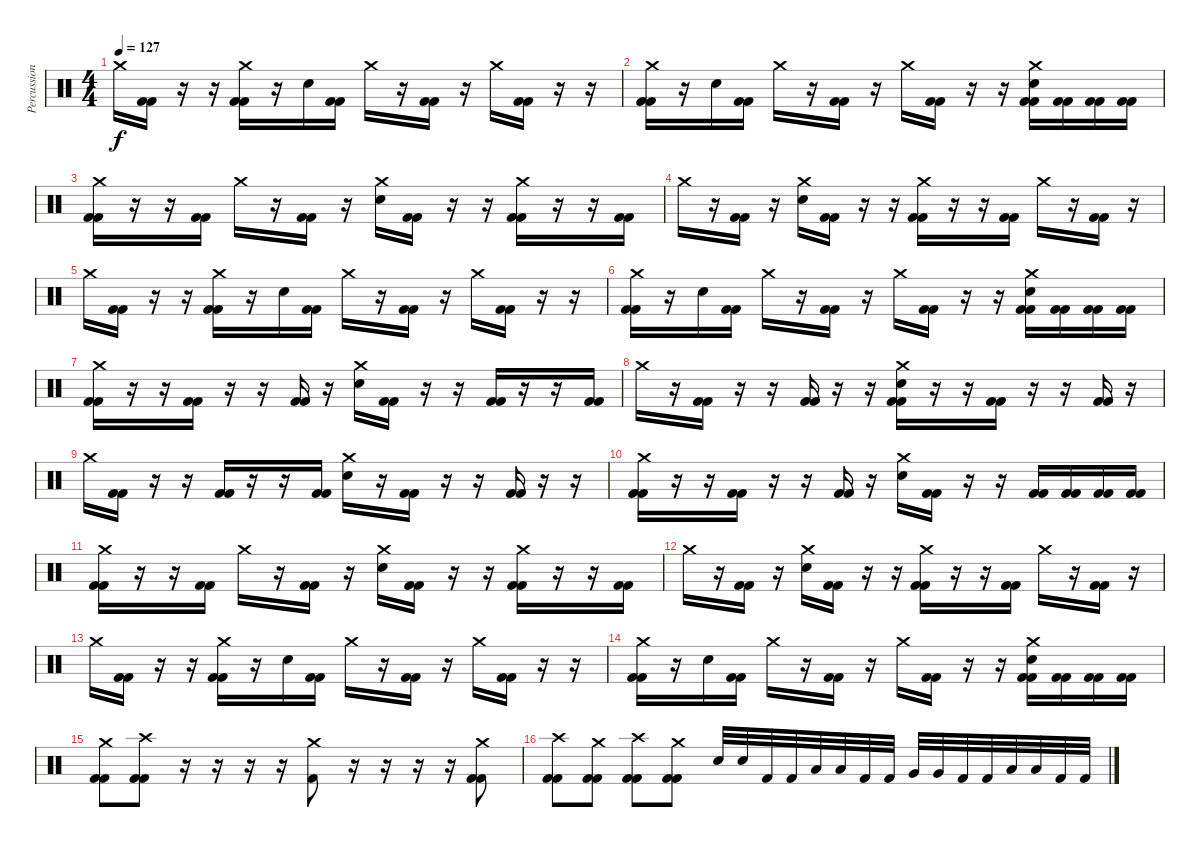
\track ("Percussion" "Percussion") {instrument percussion}
\staff {score}
\articulation defaults
\ts (4 4)
\tempo 127
\clef neutral
\ks c "Crash medium (hit)".16{dy f}
("Kick (hit) 2" "Kick (hit) 2").16 r.16 r.16 ("Crash medium (hit)" "Kick (hit) 2" "Kick (hit) 2").16 r.16 "Electric Snare (hit)".16 ("Kick (hit) 2" "Kick (hit) 2").16 "Crash medium (hit)".16 r.16 ("Kick (hit) 2" "Kick (hit) 2").16 r.16 "Crash medium (hit)".16 ("Kick (hit) 2" "Kick (hit) 2").16 r.16 r.16 |
("Crash medium (hit)" "Kick (hit) 2" "Kick (hit) 2").16 r.16 "Electric Snare (hit)".16 ("Kick (hit) 2" "Kick (hit) 2").16 "Crash medium (hit)".16 r.16 ("Kick (hit) 2" "Kick (hit) 2").16 r.16 "Crash medium (hit)".16 ("Kick (hit) 2" "Kick (hit) 2").16 r.16 r.16 ("Crash medium (hit)" "Electric Snare (hit)" "Kick (hit) 2" "Kick (hit) 2").16 ("Kick (hit) 2" "Kick (hit) 2").16 ("Kick (hit) 2" "Kick (hit) 2").16 ("Kick (hit) 2" "Kick (hit) 2").16 |
("Crash medium (hit)" "Kick (hit) 2" "Kick (hit) 2").16 r.16 r.16 ("Kick (hit) 2" "Kick (hit) 2").16 "Crash medium (hit)".16 r.16 ("Kick (hit) 2" "Kick (hit) 2").16 r.16 ("Crash medium (hit)" "Electric Snare (hit)").16 ("Kick (hit) 2" "Kick (hit) 2").16 r.16 r.16 ("Crash medium (hit)" "Kick (hit) 2" "Kick (hit) 2").16 r.16 r.16 ("Kick (hit) 2" "Kick (hit) 2").16 |
"Crash medium (hit)".16 r.16 ("Kick (hit) 2" "Kick (hit) 2").16 r.16 ("Crash medium (hit)" "Electric Snare (hit)").16 ("Kick (hit) 2" "Kick (hit) 2").16 r.16 r.16 ("Crash medium (hit)" "Kick (hit) 2" "Kick (hit) 2").16 r.16 r.16 ("Kick (hit) 2" "Kick (hit) 2").16 "Crash medium (hit)".16 r.16 ("Kick (hit) 2" "Kick (hit) 2").16 r.16 |
"Crash medium (hit)".16 ("Kick (hit) 2" "Kick (hit) 2").16 r.16 r.16 ("Crash medium (hit)" "Kick (hit) 2" "Kick (hit) 2").16 r.16 "Electric Snare (hit)".16 ("Kick (hit) 2" "Kick (hit) 2").16 "Crash medium (hit)".16 r.16 ("Kick (hit) 2" "Kick (hit) 2").16 r.16 "Crash medium (hit)".16 ("Kick (hit) 2" "Kick (hit) 2").16 r.16 r.16 |
("Crash medium (hit)" "Kick (hit) 2" "Kick (hit) 2").16 r.16 "Electric Snare (hit)".16 ("Kick (hit) 2" "Kick (hit) 2").16 "Crash medium (hit)".16 r.16 ("Kick (hit) 2" "Kick (hit) 2").16 r.16 "Crash medium (hit)".16 ("Kick (hit) 2" "Kick (hit) 2").16 r.16 r.16 ("Crash medium (hit)" "Electric Snare (hit)" "Kick (hit) 2" "Kick (hit) 2").16 ("Kick (hit) 2" "Kick (hit) 2").16 ("Kick (hit) 2" "Kick (hit) 2").16 ("Kick (hit) 2" "Kick (hit) 2").16 |
("Crash medium (hit)" "Kick (hit) 2" "Kick (hit) 2").16 r.16 r.16 ("Kick (hit) 2" "Kick (hit) 2").16 r.16 r.16 ("Kick (hit) 2" "Kick (hit) 2").16 r.16 ("Crash medium (hit)" "Electric Snare (hit)").16 ("Kick (hit) 2" "Kick (hit) 2").16 r.16 r.16 ("Kick (hit) 2" "Kick (hit) 2").16 r.16 r.16 ("Kick (hit) 2" "Kick (hit) 2").16 |
"Crash medium (hit)".16 r.16 ("Kick (hit) 2" "Kick (hit) 2").16 r.16 r.16 ("Kick (hit) 2" "Kick (hit) 2").16 r.16 r.16 ("Crash medium (hit)" "Electric Snare (hit)" "Kick (hit) 2" "Kick (hit) 2").16 r.16 r.16 ("Kick (hit) 2" "Kick (hit) 2").16 r.16 r.16 ("Kick (hit) 2" "Kick (hit) 2").16 r.16 |
"Crash medium (hit)".16 ("Kick (hit) 2" "Kick (hit) 2").16 r.16 r.16 ("Kick (hit) 2" "Kick (hit) 2").16 r.16 r.16 ("Kick (hit) 2" "Kick (hit) 2").16 ("Crash medium (hit)" "Electric Snare (hit)").16 r.16 ("Kick (hit) 2" "Kick (hit) 2").16 r.16 r.16 ("Kick (hit) 2" "Kick (hit) 2").16 r.16 r.16 |
("Crash medium (hit)" "Kick (hit) 2" "Kick (hit) 2").16 r.16 r.16 ("Kick (hit) 2" "Kick (hit) 2").16 r.16 r.16 ("Kick (hit) 2" "Kick (hit) 2").16 r.16 ("Crash medium (hit)" "Electric Snare (hit)").16 ("Kick (hit) 2" "Kick (hit) 2").16 r.16 r.16 ("Kick (hit) 2" "Kick (hit) 2").16 ("Kick (hit) 2" "Kick (hit) 2").16 ("Kick (hit) 2" "Kick (hit) 2").16 ("Kick (hit) 2" "Kick (hit) 2").16 |
("Crash medium (hit)" "Kick (hit) 2" "Kick (hit) 2").16 r.16 r.16 ("Kick (hit) 2" "Kick (hit) 2").16 "Crash medium (hit)".16 r.16 ("Kick (hit) 2" "Kick (hit) 2").16 r.16 ("Crash medium (hit)" "Electric Snare (hit)").16 ("Kick (hit) 2" "Kick (hit) 2").16 r.16 r.16 ("Crash medium (hit)" "Kick (hit) 2" "Kick (hit) 2").16 r.16 r.16 ("Kick (hit) 2" "Kick (hit) 2").16 |
"Crash medium (hit)".16 r.16 ("Kick (hit) 2" "Kick (hit) 2").16 r.16 ("Crash medium (hit)" "Electric Snare (hit)").16 ("Kick (hit) 2" "Kick (hit) 2").16 r.16 r.16 ("Crash medium (hit)" "Kick (hit) 2" "Kick (hit) 2").16 r.16 r.16 ("Kick (hit) 2" "Kick (hit) 2").16 "Crash medium (hit)".16 r.16 ("Kick (hit) 2" "Kick (hit) 2").16 r.16 |
"Crash medium (hit)".16 ("Kick (hit) 2" "Kick (hit) 2").16 r.16 r.16 ("Crash medium (hit)" "Kick (hit) 2" "Kick (hit) 2").16 r.16 "Electric Snare (hit)".16 ("Kick (hit) 2" "Kick (hit) 2").16 "Crash medium (hit)".16 r.16 ("Kick (hit) 2" "Kick (hit) 2").16 r.16 "Crash medium (hit)".16 ("Kick (hit) 2" "Kick (hit) 2").16 r.16 r.16 |
("Crash medium (hit)" "Kick (hit) 2" "Kick (hit) 2").16 r.16 "Electric Snare (hit)".16 ("Kick (hit) 2" "Kick (hit) 2").16 "Crash medium (hit)".16 r.16 ("Kick (hit) 2" "Kick (hit) 2").16 r.16 "Crash medium (hit)".16 ("Kick (hit) 2" "Kick (hit) 2").16 r.16 r.16 ("Crash medium (hit)" "Electric Snare (hit)" "Kick (hit) 2" "Kick (hit) 2").16 ("Kick (hit) 2" "Kick (hit) 2").16 ("Kick (hit) 2" "Kick (hit) 2").16 ("Kick (hit) 2" "Kick (hit) 2").16 |
("Crash medium (hit)" "Kick (hit) 2" "Kick (hit) 2").8 ("Crash high (hit)" "Kick (hit) 2" "Kick (hit) 2").8 r.16{volume 0} r.16 r.16 r.16 ("Crash medium (hit)" "Kick (hit) 2").8{volume 13} r.16{volume 0} r.16 r.16 r.16 ("Crash medium (hit)" "Kick (hit) 2" "Kick (hit) 2").8{volume 13} |
("Crash high (hit)" "Kick (hit) 2" "Kick (hit) 2").8 ("Crash medium (hit)" "Kick (hit) 2" "Kick (hit) 2").8 ("Crash high (hit)" "Kick (hit) 2" "Kick (hit) 2").8 ("Crash medium (hit)" "Kick (hit) 2" "Kick (hit) 2").8 "Electric Snare (hit)".32 "Electric Snare (hit)".32 "Kick (hit) 2".32 "Kick (hit) 2".32 "Low Tom (hit)".32 "Low Tom (hit)".32 "Kick (hit) 2".32 "Kick (hit) 2".32 "Very Low Tom (hit)".32 "Very Low Tom (hit)".32 "Kick (hit) 2".32 "Kick (hit) 2".32 "Low Floor Tom (hit)".32 "Low Floor Tom (hit)".32 "Kick (hit) 2".32 "Kick (hit) 2".32
